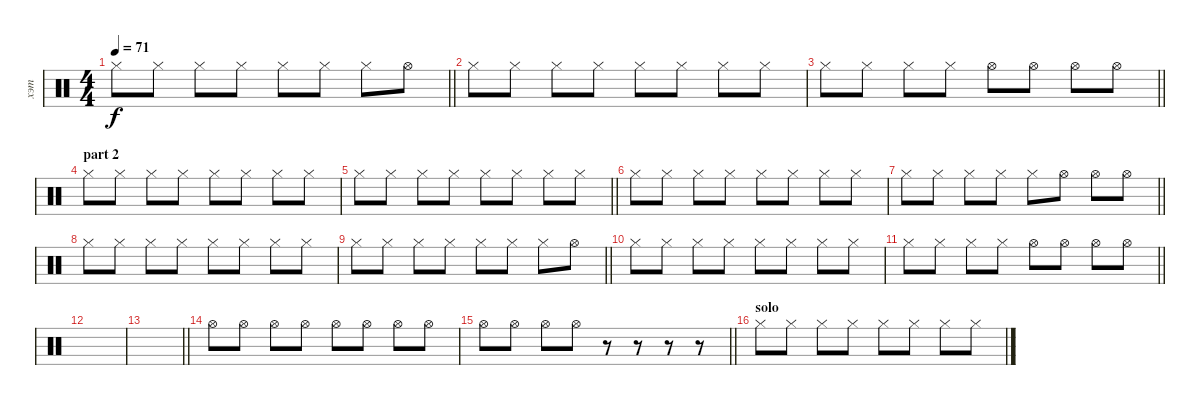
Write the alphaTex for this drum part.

\track ("хэт" "хэт") {instrument percussion}
\staff {score}
\articulation defaults
\ts (4 4)
\tempo 71
\clef neutral
\barLineRight lightlight
\ks c "Hi-Hat (closed)".8{dy f} "Hi-Hat (closed)".8 "Hi-Hat (closed)".8 "Hi-Hat (closed)".8 "Hi-Hat (closed)".8 "Hi-Hat (closed)".8 "Hi-Hat (closed)".8 "Hi-Hat (open)".8
|
"Hi-Hat (closed)".8 "Hi-Hat (closed)".8 "Hi-Hat (closed)".8 "Hi-Hat (closed)".8 "Hi-Hat (closed)".8 "Hi-Hat (closed)".8 "Hi-Hat (closed)".8 "Hi-Hat (closed)".8 |
\barLineRight lightlight "Hi-Hat (closed)".8 "Hi-Hat (closed)".8 "Hi-Hat (closed)".8 "Hi-Hat (closed)".8 "Hi-Hat (open)".8 "Hi-Hat (open)".8 "Hi-Hat (open)".8 "Hi-Hat (open)".8
|
\section ("" "part 2")
"Hi-Hat (closed)".8 "Hi-Hat (closed)".8 "Hi-Hat (closed)".8 "Hi-Hat (closed)".8 "Hi-Hat (closed)".8 "Hi-Hat (closed)".8 "Hi-Hat (closed)".8 "Hi-Hat (closed)".8 |
\barLineRight lightlight "Hi-Hat (closed)".8 "Hi-Hat (closed)".8 "Hi-Hat (closed)".8 "Hi-Hat (closed)".8 "Hi-Hat (closed)".8 "Hi-Hat (closed)".8 "Hi-Hat (closed)".8 "Hi-Hat (closed)".8
|
"Hi-Hat (closed)".8 "Hi-Hat (closed)".8 "Hi-Hat (closed)".8 "Hi-Hat (closed)".8 "Hi-Hat (closed)".8 "Hi-Hat (closed)".8 "Hi-Hat (closed)".8 "Hi-Hat (closed)".8 |
\barLineRight lightlight "Hi-Hat (closed)".8 "Hi-Hat (closed)".8 "Hi-Hat (closed)".8 "Hi-Hat (closed)".8 "Hi-Hat (closed)".8 "Hi-Hat (open)".8 "Hi-Hat (open)".8 "Hi-Hat (open)".8
|
"Hi-Hat (closed)".8 "Hi-Hat (closed)".8 "Hi-Hat (closed)".8 "Hi-Hat (closed)".8 "Hi-Hat (closed)".8 "Hi-Hat (closed)".8 "Hi-Hat (closed)".8 "Hi-Hat (closed)".8 |
\barLineRight lightlight "Hi-Hat (closed)".8 "Hi-Hat (closed)".8 "Hi-Hat (closed)".8 "Hi-Hat (closed)".8 "Hi-Hat (closed)".8 "Hi-Hat (closed)".8 "Hi-Hat (closed)".8 "Hi-Hat (open)".8
|
"Hi-Hat (closed)".8 "Hi-Hat (closed)".8 "Hi-Hat (closed)".8 "Hi-Hat (closed)".8 "Hi-Hat (closed)".8 "Hi-Hat (closed)".8 "Hi-Hat (closed)".8 "Hi-Hat (closed)".8 |
\barLineRight lightlight "Hi-Hat (closed)".8 "Hi-Hat (closed)".8 "Hi-Hat (closed)".8 "Hi-Hat (closed)".8 "Hi-Hat (open)".8 "Hi-Hat (open)".8 "Hi-Hat (open)".8 "Hi-Hat (open)".8
|
|
\barLineRight lightlight
|
"Hi-Hat (open)".8 "Hi-Hat (open)".8 "Hi-Hat (open)".8 "Hi-Hat (open)".8 "Hi-Hat (open)".8 "Hi-Hat (open)".8 "Hi-Hat (open)".8 "Hi-Hat (open)".8 |
\barLineRight lightlight "Hi-Hat (open)".8 "Hi-Hat (open)".8 "Hi-Hat (open)".8 "Hi-Hat (open)".8
r.8 r.8 r.8 r.8 |
\section ("" "solo")
"Hi-Hat (closed)".8 "Hi-Hat (closed)".8 "Hi-Hat (closed)".8 "Hi-Hat (closed)".8 "Hi-Hat (closed)".8 "Hi-Hat (closed)".8 "Hi-Hat (closed)".8 "Hi-Hat (closed)".8
